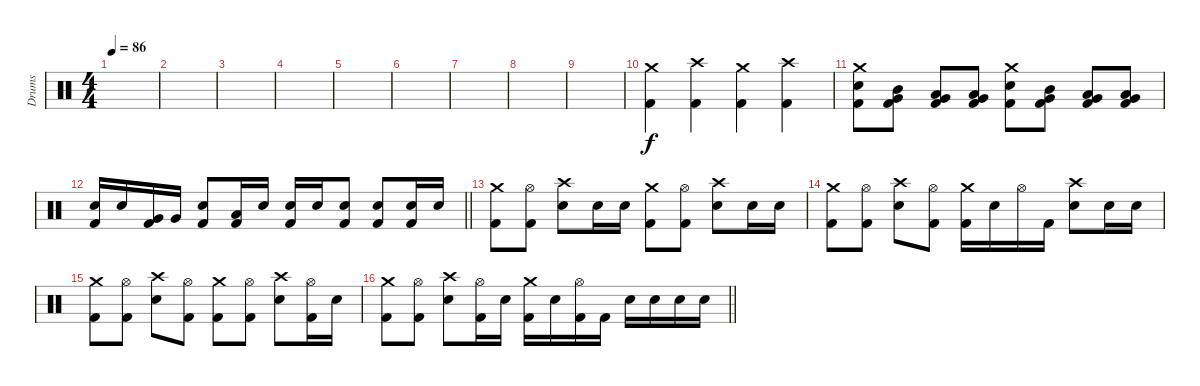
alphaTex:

\track ("Drums" "Drums") {instrument percussion}
\staff {score}
\articulation defaults
\ts (4 4)
\tempo 86
\clef neutral
\ks c
|
|
|
|
|
|
|
|
|
("Crash medium (hit)" "Kick (hit) 2").4 ("Crash high (hit)" "Kick (hit) 2").4 ("Crash medium (hit)" "Kick (hit) 2").4 ("Crash high (hit)" "Kick (hit) 2").4 |
("Crash medium (hit)" "Electric Snare (hit)" "Kick (hit) 2").8 ("Mid Tom (hit)" "Very Low Tom (hit)" "Kick (hit) 2").8 ("Low Tom (hit)" "Very Low Tom (hit)" "Kick (hit) 2").8 ("Low Floor Tom (hit)" "Very Low Tom (hit)" "Kick (hit) 2").8 ("Crash medium (hit)" "Electric Snare (hit)" "Kick (hit) 2").8 ("Mid Tom (hit)" "Very Low Tom (hit)" "Kick (hit) 2").8 ("Low Tom (hit)" "Very Low Tom (hit)" "Kick (hit) 2").8 ("Low Floor Tom (hit)" "Very Low Tom (hit)" "Kick (hit) 2").8 |
\barLineRight lightlight
("Electric Snare (hit)" "Kick (hit) 2").16 "Electric Snare (hit)".16 ("Very Low Tom (hit)" "Kick (hit) 2").16 "Very Low Tom (hit)".16 ("Electric Snare (hit)" "Kick (hit) 2").8 ("Low Floor Tom (hit)" "Kick (hit) 2").16 "Electric Snare (hit)".16 ("Electric Snare (hit)" "Kick (hit) 2").16 "Electric Snare (hit)".16 ("Electric Snare (hit)" "Kick (hit) 2").8 ("Electric Snare (hit)" "Kick (hit) 2").8 ("Electric Snare (hit)" "Kick (hit) 2").16 "Electric Snare (hit)".16 |
("Crash medium (hit)" "Kick (hit) 2").8 ("Hi-Hat (open)" "Kick (hit) 2").8 ("Crash high (hit)" "Electric Snare (hit)").8 "Electric Snare (hit)".16 "Electric Snare (hit)".16 ("Crash medium (hit)" "Kick (hit) 2").8 ("Hi-Hat (open)" "Kick (hit) 2").8 ("Crash high (hit)" "Electric Snare (hit)").8 "Electric Snare (hit)".16 "Electric Snare (hit)".16 |
("Crash medium (hit)" "Kick (hit) 2").8 ("Hi-Hat (open)" "Kick (hit) 2").8 ("Crash high (hit)" "Electric Snare (hit)").8 ("Hi-Hat (open)" "Kick (hit) 2").8 ("Crash medium (hit)" "Kick (hit) 2").16 "Electric Snare (hit)".16 "Hi-Hat (open)".16 "Kick (hit) 2".16 ("Crash high (hit)" "Electric Snare (hit)").8 "Electric Snare (hit)".16 "Electric Snare (hit)".16 |
("Crash medium (hit)" "Kick (hit) 2").8 ("Hi-Hat (open)" "Kick (hit) 2").8 ("Crash high (hit)" "Electric Snare (hit)").8 ("Hi-Hat (open)" "Kick (hit) 2").8 ("Crash medium (hit)" "Kick (hit) 2").8 ("Hi-Hat (open)" "Kick (hit) 2").8 ("Crash high (hit)" "Electric Snare (hit)").8 ("Hi-Hat (open)" "Kick (hit) 2").16 "Electric Snare (hit)".16 |
\barLineRight lightlight
("Crash medium (hit)" "Kick (hit) 2").8 ("Hi-Hat (open)" "Kick (hit) 2").8 ("Crash high (hit)" "Electric Snare (hit)").8 ("Hi-Hat (open)" "Kick (hit) 2").16 "Electric Snare (hit)".16 ("Crash medium (hit)" "Kick (hit) 2").16 "Electric Snare (hit)".16 ("Hi-Hat (open)" "Kick (hit) 2").16 "Kick (hit) 2".16 "Electric Snare (hit)".16 "Electric Snare (hit)".16 "Electric Snare (hit)".16 "Electric Snare (hit)".16
